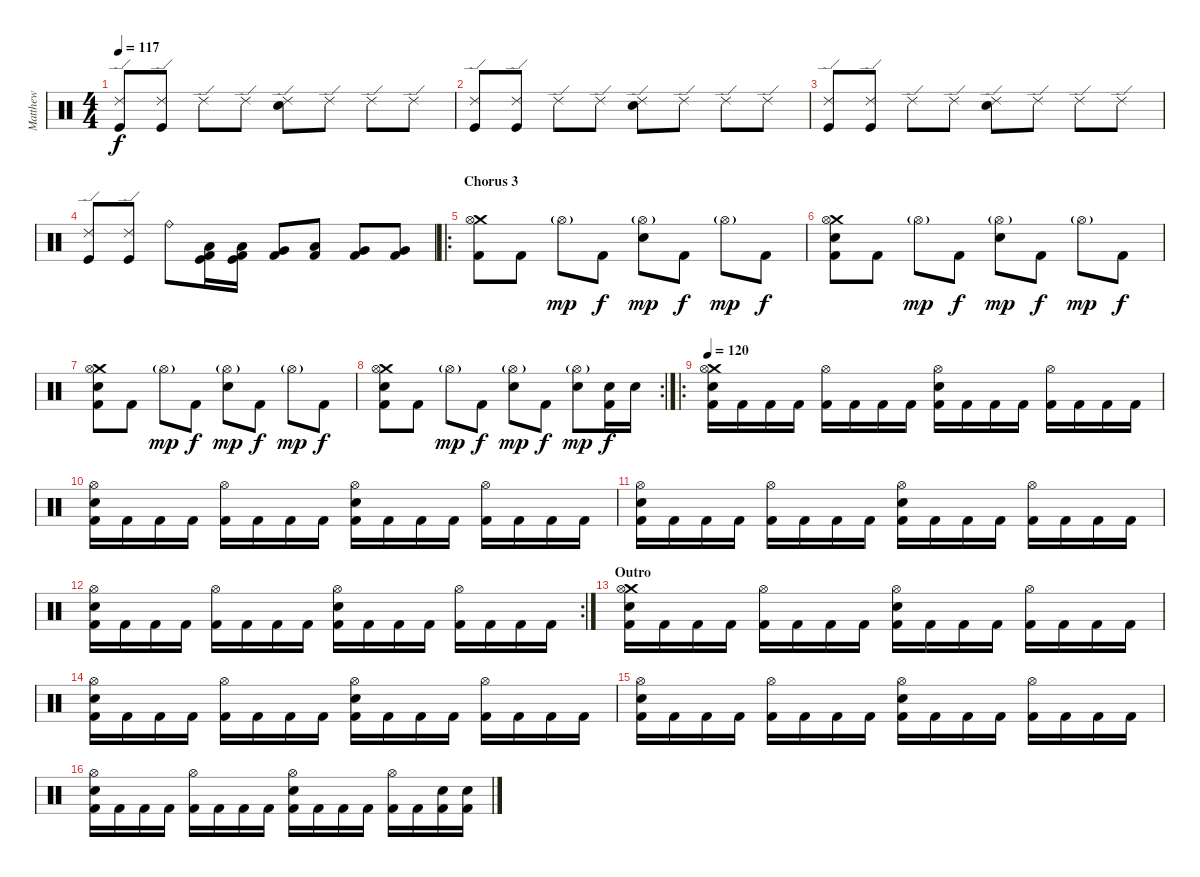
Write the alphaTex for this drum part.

\track ("Matthew" "Matthew") {instrument percussion}
\staff {score}
\articulation defaults
\ts (4 4)
\tempo 117
\clef neutral
\ks c
("Ride (edge) 2" "Kick (hit)").8{dy f} ("Ride (edge) 2" "Kick (hit)").8 "Ride (edge) 2".8 "Ride (edge) 2".8 ("Ride (edge) 2" "Electric Snare (hit)").8 "Ride (edge) 2".8 "Ride (edge) 2".8 "Ride (edge) 2".8 |
("Ride (edge) 2" "Kick (hit)").8 ("Ride (edge) 2" "Kick (hit)").8 "Ride (edge) 2".8 "Ride (edge) 2".8 ("Ride (edge) 2" "Electric Snare (hit)").8 "Ride (edge) 2".8 "Ride (edge) 2".8 "Ride (edge) 2".8 |
("Ride (edge) 2" "Kick (hit)").8 ("Ride (edge) 2" "Kick (hit)").8 "Ride (edge) 2".8 "Ride (edge) 2".8 ("Ride (edge) 2" "Electric Snare (hit)").8 "Ride (edge) 2".8 "Ride (edge) 2".8 "Ride (edge) 2".8 |
("Ride (edge) 2" "Kick (hit)").8 ("Ride (edge) 2" "Kick (hit)").8 "Ride (bell)".8 ("Low Floor Tom (hit)" "Kick (hit) 2" "Kick (hit)").16 ("Low Floor Tom (hit)" "Kick (hit) 2" "Kick (hit)").16 ("Very Low Tom (hit)" "Kick (hit) 2").8 ("Low Tom (hit)" "Kick (hit) 2").8 ("Very Low Tom (hit)" "Kick (hit) 2").8 ("Very Low Tom (hit)" "Kick (hit) 2").8 |
\ro
\section ("" "Chorus 3")
("Crash medium (hit)" "Hi-Hat (open)" "Kick (hit) 2").8 "Kick (hit) 2".8 "Hi-Hat (open)"{g}.8{dy mp} "Kick (hit) 2".8{dy f} ("Hi-Hat (open)"{g} "Electric Snare (hit)").8{dy mp} "Kick (hit) 2".8{dy f} "Hi-Hat (open)"{g}.8{dy mp} "Kick (hit) 2".8{dy f} |
("Crash medium (hit)" "Hi-Hat (open)" "Electric Snare (hit)" "Kick (hit) 2").8 "Kick (hit) 2".8 "Hi-Hat (open)"{g}.8{dy mp} "Kick (hit) 2".8{dy f} ("Hi-Hat (open)"{g} "Electric Snare (hit)").8{dy mp} "Kick (hit) 2".8{dy f} "Hi-Hat (open)"{g}.8{dy mp} "Kick (hit) 2".8{dy f} |
("Crash medium (hit)" "Hi-Hat (open)" "Electric Snare (hit)" "Kick (hit) 2").8 "Kick (hit) 2".8 "Hi-Hat (open)"{g}.8{dy mp} "Kick (hit) 2".8{dy f} ("Hi-Hat (open)"{g} "Electric Snare (hit)").8{dy mp} "Kick (hit) 2".8{dy f} "Hi-Hat (open)"{g}.8{dy mp} "Kick (hit) 2".8{dy f} |
\rc 2
("Crash medium (hit)" "Hi-Hat (open)" "Electric Snare (hit)" "Kick (hit) 2").8 "Kick (hit) 2".8 "Hi-Hat (open)"{g}.8{dy mp} "Kick (hit) 2".8{dy f} ("Hi-Hat (open)"{g} "Electric Snare (hit)").8{dy mp} "Kick (hit) 2".8{dy f} ("Hi-Hat (open)"{g} "Electric Snare (hit)").8{dy mp} ("Electric Snare (hit)" "Kick (hit) 2").16{dy f} "Electric Snare (hit)".16 |
\ro
\tempo 120
("Crash medium (hit)" "Hi-Hat (open)" "Electric Snare (hit)" "Kick (hit) 2").16 "Kick (hit) 2".16 "Kick (hit) 2".16 "Kick (hit) 2".16 ("Hi-Hat (open)" "Kick (hit) 2").16 "Kick (hit) 2".16 "Kick (hit) 2".16 "Kick (hit) 2".16 ("Hi-Hat (open)" "Electric Snare (hit)" "Kick (hit) 2").16 "Kick (hit) 2".16 "Kick (hit) 2".16 "Kick (hit) 2".16 ("Hi-Hat (open)" "Kick (hit) 2").16 "Kick (hit) 2".16 "Kick (hit) 2".16 "Kick (hit) 2".16 |
("Hi-Hat (open)" "Electric Snare (hit)" "Kick (hit) 2").16 "Kick (hit) 2".16 "Kick (hit) 2".16 "Kick (hit) 2".16 ("Hi-Hat (open)" "Kick (hit) 2").16 "Kick (hit) 2".16 "Kick (hit) 2".16 "Kick (hit) 2".16 ("Hi-Hat (open)" "Electric Snare (hit)" "Kick (hit) 2").16 "Kick (hit) 2".16 "Kick (hit) 2".16 "Kick (hit) 2".16 ("Hi-Hat (open)" "Kick (hit) 2").16 "Kick (hit) 2".16 "Kick (hit) 2".16 "Kick (hit) 2".16 |
("Hi-Hat (open)" "Electric Snare (hit)" "Kick (hit) 2").16 "Kick (hit) 2".16 "Kick (hit) 2".16 "Kick (hit) 2".16 ("Hi-Hat (open)" "Kick (hit) 2").16 "Kick (hit) 2".16 "Kick (hit) 2".16 "Kick (hit) 2".16 ("Hi-Hat (open)" "Electric Snare (hit)" "Kick (hit) 2").16 "Kick (hit) 2".16 "Kick (hit) 2".16 "Kick (hit) 2".16 ("Hi-Hat (open)" "Kick (hit) 2").16 "Kick (hit) 2".16 "Kick (hit) 2".16 "Kick (hit) 2".16 |
\rc 2
("Hi-Hat (open)" "Electric Snare (hit)" "Kick (hit) 2").16 "Kick (hit) 2".16 "Kick (hit) 2".16 "Kick (hit) 2".16 ("Hi-Hat (open)" "Kick (hit) 2").16 "Kick (hit) 2".16 "Kick (hit) 2".16 "Kick (hit) 2".16 ("Hi-Hat (open)" "Electric Snare (hit)" "Kick (hit) 2").16 "Kick (hit) 2".16 "Kick (hit) 2".16 "Kick (hit) 2".16 ("Hi-Hat (open)" "Kick (hit) 2").16 "Kick (hit) 2".16 "Kick (hit) 2".16 "Kick (hit) 2".16 |
\section ("" "Outro")
("Crash medium (hit)" "Hi-Hat (open)" "Electric Snare (hit)" "Kick (hit) 2").16 "Kick (hit) 2".16 "Kick (hit) 2".16 "Kick (hit) 2".16 ("Hi-Hat (open)" "Kick (hit) 2").16 "Kick (hit) 2".16 "Kick (hit) 2".16 "Kick (hit) 2".16 ("Hi-Hat (open)" "Electric Snare (hit)" "Kick (hit) 2").16 "Kick (hit) 2".16 "Kick (hit) 2".16 "Kick (hit) 2".16 ("Hi-Hat (open)" "Kick (hit) 2").16 "Kick (hit) 2".16 "Kick (hit) 2".16 "Kick (hit) 2".16 |
("Hi-Hat (open)" "Electric Snare (hit)" "Kick (hit) 2").16 "Kick (hit) 2".16 "Kick (hit) 2".16 "Kick (hit) 2".16 ("Hi-Hat (open)" "Kick (hit) 2").16 "Kick (hit) 2".16 "Kick (hit) 2".16 "Kick (hit) 2".16 ("Hi-Hat (open)" "Electric Snare (hit)" "Kick (hit) 2").16 "Kick (hit) 2".16 "Kick (hit) 2".16 "Kick (hit) 2".16 ("Hi-Hat (open)" "Kick (hit) 2").16 "Kick (hit) 2".16 "Kick (hit) 2".16 "Kick (hit) 2".16 |
("Hi-Hat (open)" "Electric Snare (hit)" "Kick (hit) 2").16 "Kick (hit) 2".16 "Kick (hit) 2".16 "Kick (hit) 2".16 ("Hi-Hat (open)" "Kick (hit) 2").16 "Kick (hit) 2".16 "Kick (hit) 2".16 "Kick (hit) 2".16 ("Hi-Hat (open)" "Electric Snare (hit)" "Kick (hit) 2").16 "Kick (hit) 2".16 "Kick (hit) 2".16 "Kick (hit) 2".16 ("Hi-Hat (open)" "Kick (hit) 2").16 "Kick (hit) 2".16 "Kick (hit) 2".16 "Kick (hit) 2".16 |
("Hi-Hat (open)" "Electric Snare (hit)" "Kick (hit) 2").16 "Kick (hit) 2".16 "Kick (hit) 2".16 "Kick (hit) 2".16 ("Hi-Hat (open)" "Kick (hit) 2").16 "Kick (hit) 2".16 "Kick (hit) 2".16 "Kick (hit) 2".16 ("Hi-Hat (open)" "Electric Snare (hit)" "Kick (hit) 2").16 "Kick (hit) 2".16 "Kick (hit) 2".16 "Kick (hit) 2".16 ("Hi-Hat (open)" "Kick (hit) 2").16 "Kick (hit) 2".16 ("Electric Snare (hit)" "Kick (hit) 2").16 ("Electric Snare (hit)" "Kick (hit) 2").16
